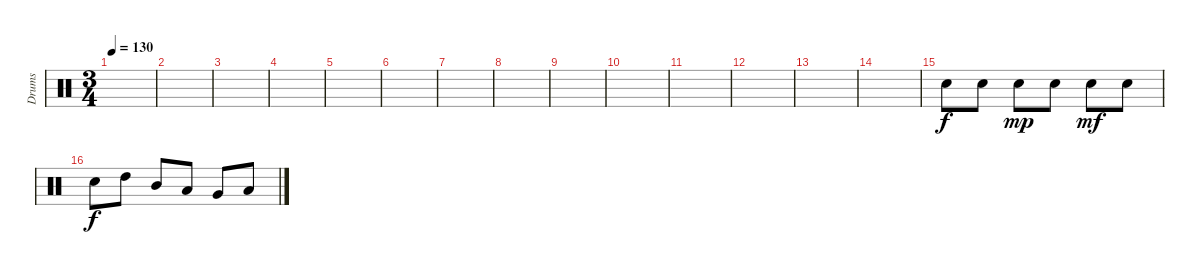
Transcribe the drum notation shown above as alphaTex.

\track ("Drums" "Drums") {instrument percussion}
\staff {score}
\articulation defaults
\ts (3 4)
\tempo 130
\clef neutral
\ks c
|
|
|
|
|
|
|
|
|
|
|
|
|
|
"Electric Snare (hit)".8 "Electric Snare (hit)".8 "Electric Snare (hit)".8{dy mp} "Electric Snare (hit)".8 "Electric Snare (hit)".8{dy mf} "Electric Snare (hit)".8 |
"Electric Snare (hit)".8{dy f} "High Tom (hit)".8 "Mid Tom (hit)".8 "Low Tom (hit)".8 "Very Low Tom (hit)".8 "Low Floor Tom (hit)".8
